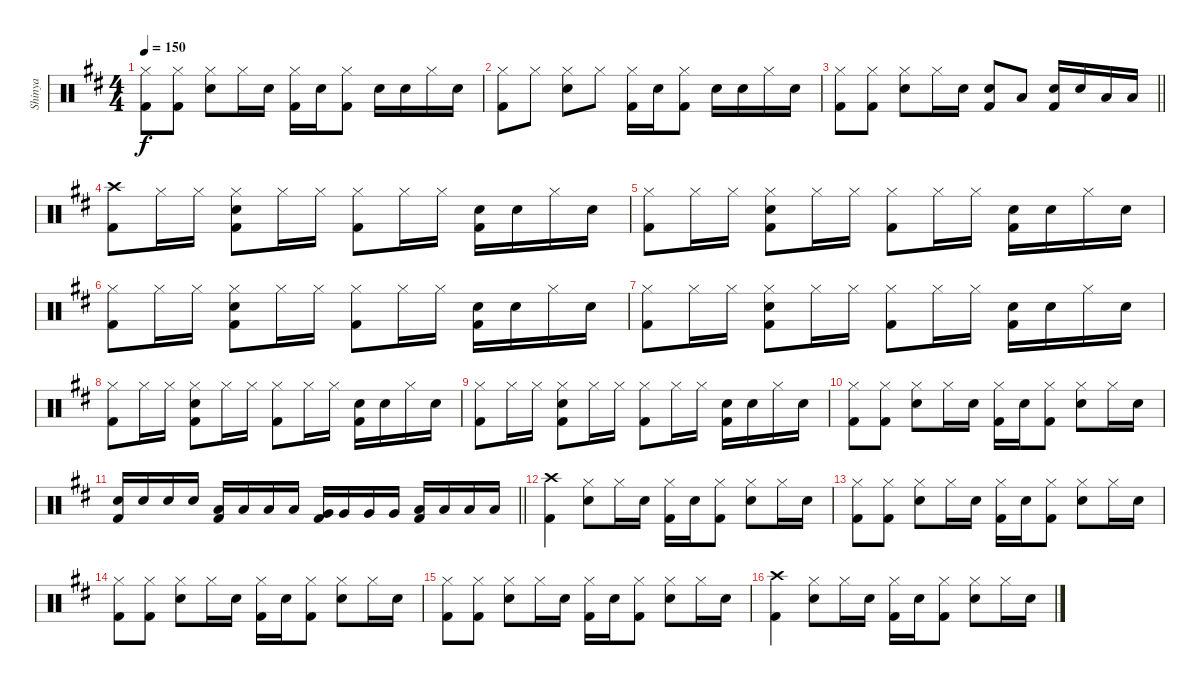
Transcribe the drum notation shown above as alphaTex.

\track ("Shinya" "Shinya") {instrument percussion}
\staff {score}
\articulation defaults
\ts (4 4)
\tempo 150
\clef neutral
\ks d
("Hi-Hat (closed)" "Kick (hit) 2").8{dy f} ("Hi-Hat (closed)" "Kick (hit) 2").8 ("Hi-Hat (closed)" "Electric Snare (hit)").8 "Hi-Hat (closed)".16 "Electric Snare (hit)".16 ("Hi-Hat (closed)" "Kick (hit) 2").16 "Electric Snare (hit)".16 ("Hi-Hat (closed)" "Kick (hit) 2").8 "Electric Snare (hit)".16 "Electric Snare (hit)".16 "Hi-Hat (closed)".16 "Electric Snare (hit)".16 |
("Hi-Hat (closed)" "Kick (hit) 2").8 "Hi-Hat (closed)".8 ("Hi-Hat (closed)" "Electric Snare (hit)").8 "Hi-Hat (closed)".8 ("Hi-Hat (closed)" "Kick (hit) 2").16 "Electric Snare (hit)".16 ("Hi-Hat (closed)" "Kick (hit) 2").8 "Electric Snare (hit)".16 "Electric Snare (hit)".16 "Hi-Hat (closed)".16 "Electric Snare (hit)".16 |
\barLineRight lightlight
("Hi-Hat (closed)" "Kick (hit) 2").8 ("Hi-Hat (closed)" "Kick (hit) 2").8 ("Hi-Hat (closed)" "Electric Snare (hit)").8 "Hi-Hat (closed)".16 "Electric Snare (hit)".16 ("Electric Snare (hit)" "Kick (hit) 2").8 "Low Tom (hit)".8 ("Electric Snare (hit)" "Kick (hit) 2").16 "Electric Snare (hit)".16 "Low Tom (hit)".16 "Low Tom (hit)".16 |
("Crash high (hit)" "Kick (hit) 2").8 "Hi-Hat (closed)".16 "Hi-Hat (closed)".16 ("Hi-Hat (closed)" "Electric Snare (hit)" "Kick (hit) 2").8 "Hi-Hat (closed)".16 "Hi-Hat (closed)".16 ("Hi-Hat (closed)" "Kick (hit) 2").8 "Hi-Hat (closed)".16 "Hi-Hat (closed)".16 ("Electric Snare (hit)" "Kick (hit) 2").16 "Electric Snare (hit)".16 "Hi-Hat (closed)".16 "Electric Snare (hit)".16 |
("Hi-Hat (closed)" "Kick (hit) 2").8 "Hi-Hat (closed)".16 "Hi-Hat (closed)".16 ("Hi-Hat (closed)" "Electric Snare (hit)" "Kick (hit) 2").8 "Hi-Hat (closed)".16 "Hi-Hat (closed)".16 ("Hi-Hat (closed)" "Kick (hit) 2").8 "Hi-Hat (closed)".16 "Hi-Hat (closed)".16 ("Electric Snare (hit)" "Kick (hit) 2").16 "Electric Snare (hit)".16 "Hi-Hat (closed)".16 "Electric Snare (hit)".16 |
("Hi-Hat (closed)" "Kick (hit) 2").8 "Hi-Hat (closed)".16 "Hi-Hat (closed)".16 ("Hi-Hat (closed)" "Electric Snare (hit)" "Kick (hit) 2").8 "Hi-Hat (closed)".16 "Hi-Hat (closed)".16 ("Hi-Hat (closed)" "Kick (hit) 2").8 "Hi-Hat (closed)".16 "Hi-Hat (closed)".16 ("Electric Snare (hit)" "Kick (hit) 2").16 "Electric Snare (hit)".16 "Hi-Hat (closed)".16 "Electric Snare (hit)".16 |
("Hi-Hat (closed)" "Kick (hit) 2").8 "Hi-Hat (closed)".16 "Hi-Hat (closed)".16 ("Hi-Hat (closed)" "Electric Snare (hit)" "Kick (hit) 2").8 "Hi-Hat (closed)".16 "Hi-Hat (closed)".16 ("Hi-Hat (closed)" "Kick (hit) 2").8 "Hi-Hat (closed)".16 "Hi-Hat (closed)".16 ("Electric Snare (hit)" "Kick (hit) 2").16 "Electric Snare (hit)".16 "Hi-Hat (closed)".16 "Electric Snare (hit)".16 |
("Hi-Hat (closed)" "Kick (hit) 2").8 "Hi-Hat (closed)".16 "Hi-Hat (closed)".16 ("Hi-Hat (closed)" "Electric Snare (hit)" "Kick (hit) 2").8 "Hi-Hat (closed)".16 "Hi-Hat (closed)".16 ("Hi-Hat (closed)" "Kick (hit) 2").8 "Hi-Hat (closed)".16 "Hi-Hat (closed)".16 ("Electric Snare (hit)" "Kick (hit) 2").16 "Electric Snare (hit)".16 "Hi-Hat (closed)".16 "Electric Snare (hit)".16 |
("Hi-Hat (closed)" "Kick (hit) 2").8 "Hi-Hat (closed)".16 "Hi-Hat (closed)".16 ("Hi-Hat (closed)" "Electric Snare (hit)" "Kick (hit) 2").8 "Hi-Hat (closed)".16 "Hi-Hat (closed)".16 ("Hi-Hat (closed)" "Kick (hit) 2").8 "Hi-Hat (closed)".16 "Hi-Hat (closed)".16 ("Electric Snare (hit)" "Kick (hit) 2").16 "Electric Snare (hit)".16 "Hi-Hat (closed)".16 "Electric Snare (hit)".16 |
("Hi-Hat (closed)" "Kick (hit) 2").8 ("Hi-Hat (closed)" "Kick (hit) 2").8 ("Hi-Hat (closed)" "Electric Snare (hit)").8 "Hi-Hat (closed)".16 "Electric Snare (hit)".16 ("Hi-Hat (closed)" "Kick (hit) 2").16 "Electric Snare (hit)".16 ("Hi-Hat (closed)" "Kick (hit) 2").8 ("Hi-Hat (closed)" "Electric Snare (hit)").8 "Hi-Hat (closed)".16 "Electric Snare (hit)".16 |
\barLineRight lightlight
("Electric Snare (hit)" "Kick (hit) 2").16 "Electric Snare (hit)".16 "Electric Snare (hit)".16 "Electric Snare (hit)".16 ("Low Tom (hit)" "Kick (hit) 2").16 "Low Tom (hit)".16 "Low Tom (hit)".16 "Low Tom (hit)".16 ("Very Low Tom (hit)" "Kick (hit) 2").16 "Very Low Tom (hit)".16 "Very Low Tom (hit)".16 "Very Low Tom (hit)".16 ("Low Floor Tom (hit)" "Kick (hit) 2").16 "Low Floor Tom (hit)".16 "Low Floor Tom (hit)".16 "Low Floor Tom (hit)".16 |
("Crash high (hit)" "Kick (hit) 2").4 ("Hi-Hat (closed)" "Electric Snare (hit)").8 "Hi-Hat (closed)".16 "Electric Snare (hit)".16 ("Hi-Hat (closed)" "Kick (hit) 2").16 "Electric Snare (hit)".16 ("Hi-Hat (closed)" "Kick (hit) 2").8 ("Hi-Hat (closed)" "Electric Snare (hit)").8 "Hi-Hat (closed)".16 "Electric Snare (hit)".16 |
("Hi-Hat (closed)" "Kick (hit) 2").8 ("Hi-Hat (closed)" "Kick (hit) 2").8 ("Hi-Hat (closed)" "Electric Snare (hit)").8 "Hi-Hat (closed)".16 "Electric Snare (hit)".16 ("Hi-Hat (closed)" "Kick (hit) 2").16 "Electric Snare (hit)".16 ("Hi-Hat (closed)" "Kick (hit) 2").8 ("Hi-Hat (closed)" "Electric Snare (hit)").8 "Hi-Hat (closed)".16 "Electric Snare (hit)".16 |
("Hi-Hat (closed)" "Kick (hit) 2").8 ("Hi-Hat (closed)" "Kick (hit) 2").8 ("Hi-Hat (closed)" "Electric Snare (hit)").8 "Hi-Hat (closed)".16 "Electric Snare (hit)".16 ("Hi-Hat (closed)" "Kick (hit) 2").16 "Electric Snare (hit)".16 ("Hi-Hat (closed)" "Kick (hit) 2").8 ("Hi-Hat (closed)" "Electric Snare (hit)").8 "Hi-Hat (closed)".16 "Electric Snare (hit)".16 |
("Hi-Hat (closed)" "Kick (hit) 2").8 ("Hi-Hat (closed)" "Kick (hit) 2").8 ("Hi-Hat (closed)" "Electric Snare (hit)").8 "Hi-Hat (closed)".16 "Electric Snare (hit)".16 ("Hi-Hat (closed)" "Kick (hit) 2").16 "Electric Snare (hit)".16 ("Hi-Hat (closed)" "Kick (hit) 2").8 ("Hi-Hat (closed)" "Electric Snare (hit)").8 "Hi-Hat (closed)".16 "Electric Snare (hit)".16 |
("Crash high (hit)" "Kick (hit) 2").4 ("Hi-Hat (closed)" "Electric Snare (hit)").8 "Hi-Hat (closed)".16 "Electric Snare (hit)".16 ("Hi-Hat (closed)" "Kick (hit) 2").16 "Electric Snare (hit)".16 ("Hi-Hat (closed)" "Kick (hit) 2").8 ("Hi-Hat (closed)" "Electric Snare (hit)").8 "Hi-Hat (closed)".16 "Electric Snare (hit)".16
